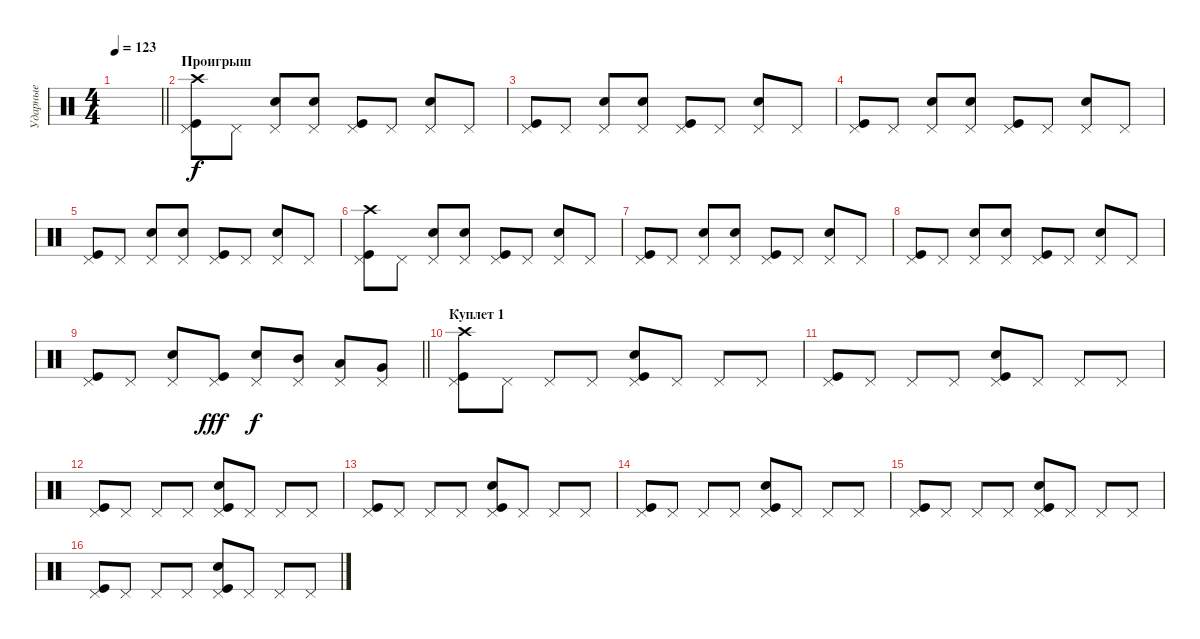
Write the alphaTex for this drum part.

\track ("Ударные" "Ударные") {instrument percussion}
\staff {score}
\articulation defaults
\ts (4 4)
\tempo 123
\clef neutral
\barLineRight lightlight
\ks c
|
\section ("" "Проигрыш")
("Kick (hit)" "Pedal Hi-Hat (hit)" "Crash high (hit)").8 "Pedal Hi-Hat (hit)".8 ("Pedal Hi-Hat (hit)" "Snare (hit) 2").8 ("Pedal Hi-Hat (hit)" "Snare (hit) 2").8 ("Kick (hit)" "Pedal Hi-Hat (hit)").8 "Pedal Hi-Hat (hit)".8 ("Pedal Hi-Hat (hit)" "Snare (hit) 2").8 "Pedal Hi-Hat (hit)".8 |
("Kick (hit)" "Pedal Hi-Hat (hit)").8 "Pedal Hi-Hat (hit)".8 ("Pedal Hi-Hat (hit)" "Snare (hit) 2").8 ("Pedal Hi-Hat (hit)" "Snare (hit) 2").8 ("Kick (hit)" "Pedal Hi-Hat (hit)").8 "Pedal Hi-Hat (hit)".8 ("Pedal Hi-Hat (hit)" "Snare (hit) 2").8 "Pedal Hi-Hat (hit)".8 |
("Kick (hit)" "Pedal Hi-Hat (hit)").8 "Pedal Hi-Hat (hit)".8 ("Pedal Hi-Hat (hit)" "Snare (hit) 2").8 ("Pedal Hi-Hat (hit)" "Snare (hit) 2").8 ("Kick (hit)" "Pedal Hi-Hat (hit)").8 "Pedal Hi-Hat (hit)".8 ("Pedal Hi-Hat (hit)" "Snare (hit) 2").8 "Pedal Hi-Hat (hit)".8 |
("Kick (hit)" "Pedal Hi-Hat (hit)").8 "Pedal Hi-Hat (hit)".8 ("Pedal Hi-Hat (hit)" "Snare (hit) 2").8 ("Pedal Hi-Hat (hit)" "Snare (hit) 2").8 ("Kick (hit)" "Pedal Hi-Hat (hit)").8 "Pedal Hi-Hat (hit)".8 ("Pedal Hi-Hat (hit)" "Snare (hit) 2").8 "Pedal Hi-Hat (hit)".8 |
("Kick (hit)" "Pedal Hi-Hat (hit)" "Crash high (hit)").8 "Pedal Hi-Hat (hit)".8 ("Pedal Hi-Hat (hit)" "Snare (hit) 2").8 ("Pedal Hi-Hat (hit)" "Snare (hit) 2").8 ("Kick (hit)" "Pedal Hi-Hat (hit)").8 "Pedal Hi-Hat (hit)".8 ("Pedal Hi-Hat (hit)" "Snare (hit) 2").8 "Pedal Hi-Hat (hit)".8 |
("Kick (hit)" "Pedal Hi-Hat (hit)").8 "Pedal Hi-Hat (hit)".8 ("Pedal Hi-Hat (hit)" "Snare (hit) 2").8 ("Pedal Hi-Hat (hit)" "Snare (hit) 2").8 ("Kick (hit)" "Pedal Hi-Hat (hit)").8 "Pedal Hi-Hat (hit)".8 ("Pedal Hi-Hat (hit)" "Snare (hit) 2").8 "Pedal Hi-Hat (hit)".8 |
("Kick (hit)" "Pedal Hi-Hat (hit)").8 "Pedal Hi-Hat (hit)".8 ("Pedal Hi-Hat (hit)" "Snare (hit) 2").8 ("Pedal Hi-Hat (hit)" "Snare (hit) 2").8 ("Kick (hit)" "Pedal Hi-Hat (hit)").8 "Pedal Hi-Hat (hit)".8 ("Pedal Hi-Hat (hit)" "Snare (hit) 2").8 "Pedal Hi-Hat (hit)".8 |
\barLineRight lightlight
("Kick (hit)" "Pedal Hi-Hat (hit)").8 "Pedal Hi-Hat (hit)".8 ("Pedal Hi-Hat (hit)" "Snare (hit) 2").8 ("Kick (hit)" "Pedal Hi-Hat (hit)").8{dy fff} ("Pedal Hi-Hat (hit)" "Snare (hit) 2").8{dy f} ("Pedal Hi-Hat (hit)" "Mid Tom (hit)").8 ("Pedal Hi-Hat (hit)" "Low Tom (hit)").8 ("Pedal Hi-Hat (hit)" "Very Low Tom (hit)").8 |
\section ("" "Куплет 1")
("Kick (hit)" "Pedal Hi-Hat (hit)" "Crash high (hit)").8 "Pedal Hi-Hat (hit)".8 "Pedal Hi-Hat (hit)".8 "Pedal Hi-Hat (hit)".8 ("Kick (hit)" "Pedal Hi-Hat (hit)" "Snare (hit) 2").8 "Pedal Hi-Hat (hit)".8 "Pedal Hi-Hat (hit)".8 "Pedal Hi-Hat (hit)".8 |
("Kick (hit)" "Pedal Hi-Hat (hit)").8 "Pedal Hi-Hat (hit)".8 "Pedal Hi-Hat (hit)".8 "Pedal Hi-Hat (hit)".8 ("Kick (hit)" "Pedal Hi-Hat (hit)" "Snare (hit) 2").8 "Pedal Hi-Hat (hit)".8 "Pedal Hi-Hat (hit)".8 "Pedal Hi-Hat (hit)".8 |
("Kick (hit)" "Pedal Hi-Hat (hit)").8 "Pedal Hi-Hat (hit)".8 "Pedal Hi-Hat (hit)".8 "Pedal Hi-Hat (hit)".8 ("Kick (hit)" "Pedal Hi-Hat (hit)" "Snare (hit) 2").8 "Pedal Hi-Hat (hit)".8 "Pedal Hi-Hat (hit)".8 "Pedal Hi-Hat (hit)".8 |
("Kick (hit)" "Pedal Hi-Hat (hit)").8 "Pedal Hi-Hat (hit)".8 "Pedal Hi-Hat (hit)".8 "Pedal Hi-Hat (hit)".8 ("Kick (hit)" "Pedal Hi-Hat (hit)" "Snare (hit) 2").8 "Pedal Hi-Hat (hit)".8 "Pedal Hi-Hat (hit)".8 "Pedal Hi-Hat (hit)".8 |
("Kick (hit)" "Pedal Hi-Hat (hit)").8 "Pedal Hi-Hat (hit)".8 "Pedal Hi-Hat (hit)".8 "Pedal Hi-Hat (hit)".8 ("Kick (hit)" "Pedal Hi-Hat (hit)" "Snare (hit) 2").8 "Pedal Hi-Hat (hit)".8 "Pedal Hi-Hat (hit)".8 "Pedal Hi-Hat (hit)".8 |
("Kick (hit)" "Pedal Hi-Hat (hit)").8 "Pedal Hi-Hat (hit)".8 "Pedal Hi-Hat (hit)".8 "Pedal Hi-Hat (hit)".8 ("Kick (hit)" "Pedal Hi-Hat (hit)" "Snare (hit) 2").8 "Pedal Hi-Hat (hit)".8 "Pedal Hi-Hat (hit)".8 "Pedal Hi-Hat (hit)".8 |
("Kick (hit)" "Pedal Hi-Hat (hit)").8 "Pedal Hi-Hat (hit)".8 "Pedal Hi-Hat (hit)".8 "Pedal Hi-Hat (hit)".8 ("Kick (hit)" "Pedal Hi-Hat (hit)" "Snare (hit) 2").8 "Pedal Hi-Hat (hit)".8 "Pedal Hi-Hat (hit)".8 "Pedal Hi-Hat (hit)".8
